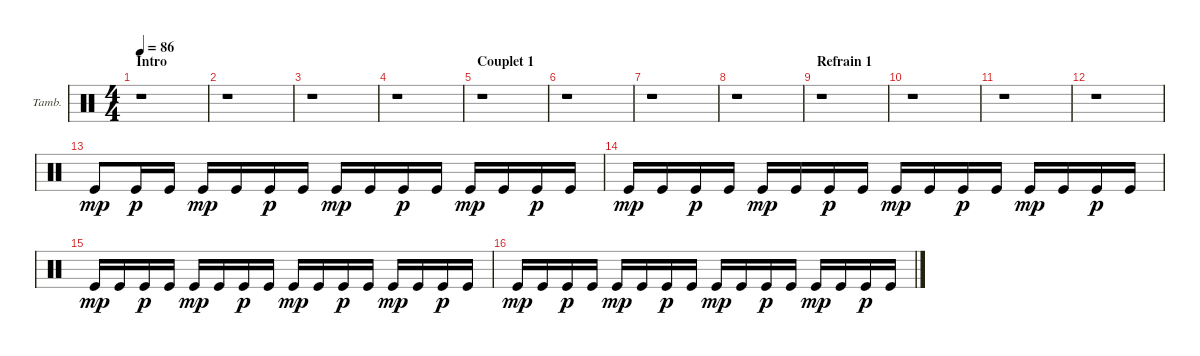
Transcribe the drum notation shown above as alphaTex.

\bracketExtendMode groupsimilarinstruments
\firstSystemTrackNameOrientation horizontal
\otherSystemsTrackNameOrientation horizontal
\track ("Tambourine" "Tamb.") {instrument percussion}
\staff {score}
\articulation defaults
\ts (4 4)
\section ("" "Intro")
\tempo 86
\clef neutral
\ks c
r.1{dy mp} |
r.1 |
r.1 |
r.1 |
\section ("" "Couplet 1")
r.1 |
r.1 |
r.1 |
r.1 |
\section ("" "Refrain 1")
r.1 |
r.1 |
r.1 |
r.1 |
"Kick (hit)".8 "Kick (hit)".16{dy p} "Kick (hit)".16 "Kick (hit)".16{dy mp} "Kick (hit)".16 "Kick (hit)".16{dy p} "Kick (hit)".16 "Kick (hit)".16{dy mp} "Kick (hit)".16 "Kick (hit)".16{dy p} "Kick (hit)".16 "Kick (hit)".16{dy mp} "Kick (hit)".16 "Kick (hit)".16{dy p} "Kick (hit)".16 |
"Kick (hit)".16{dy mp} "Kick (hit)".16 "Kick (hit)".16{dy p} "Kick (hit)".16 "Kick (hit)".16{dy mp} "Kick (hit)".16 "Kick (hit)".16{dy p} "Kick (hit)".16 "Kick (hit)".16{dy mp} "Kick (hit)".16 "Kick (hit)".16{dy p} "Kick (hit)".16 "Kick (hit)".16{dy mp} "Kick (hit)".16 "Kick (hit)".16{dy p} "Kick (hit)".16 |
"Kick (hit)".16{dy mp} "Kick (hit)".16 "Kick (hit)".16{dy p} "Kick (hit)".16 "Kick (hit)".16{dy mp} "Kick (hit)".16 "Kick (hit)".16{dy p} "Kick (hit)".16 "Kick (hit)".16{dy mp} "Kick (hit)".16 "Kick (hit)".16{dy p} "Kick (hit)".16 "Kick (hit)".16{dy mp} "Kick (hit)".16 "Kick (hit)".16{dy p} "Kick (hit)".16 |
"Kick (hit)".16{dy mp} "Kick (hit)".16 "Kick (hit)".16{dy p} "Kick (hit)".16 "Kick (hit)".16{dy mp} "Kick (hit)".16 "Kick (hit)".16{dy p} "Kick (hit)".16 "Kick (hit)".16{dy mp} "Kick (hit)".16 "Kick (hit)".16{dy p} "Kick (hit)".16 "Kick (hit)".16{dy mp} "Kick (hit)".16 "Kick (hit)".16{dy p} "Kick (hit)".16
